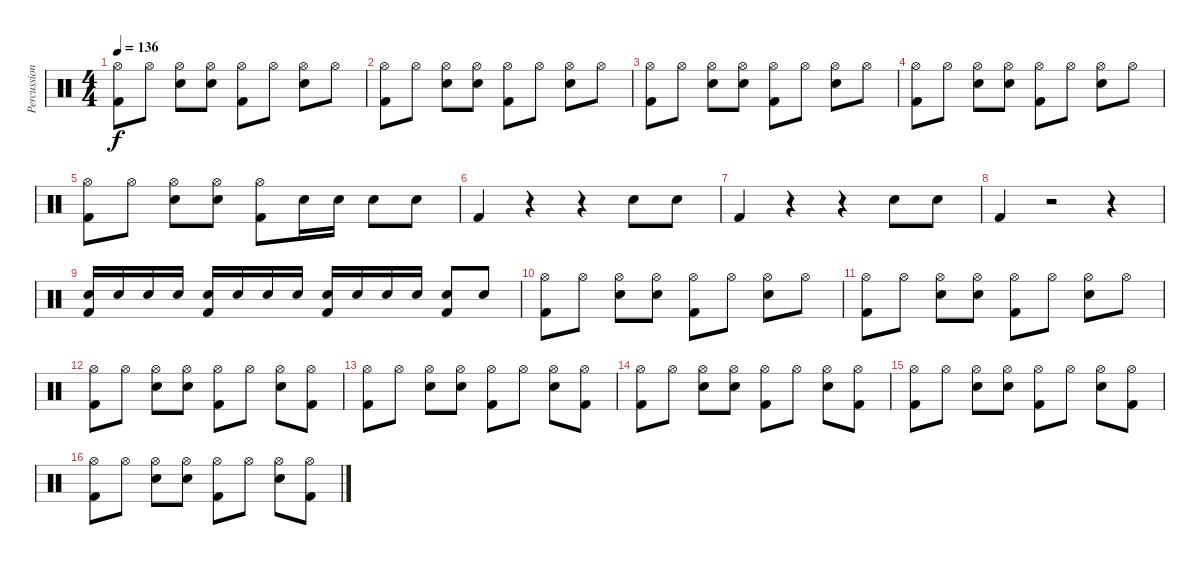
\track ("Percussion" "Percussion") {instrument percussion}
\staff {score}
\articulation defaults
\ts (4 4)
\tempo 136
\clef neutral
\ks c
("Hi-Hat (open)" "Kick (hit) 2").8{dy f} "Hi-Hat (open)".8 ("Hi-Hat (open)" "Snare (hit) 2").8 ("Hi-Hat (open)" "Snare (hit) 2").8 ("Hi-Hat (open)" "Kick (hit) 2").8 "Hi-Hat (open)".8 ("Hi-Hat (open)" "Snare (hit) 2").8 "Hi-Hat (open)".8 |
("Hi-Hat (open)" "Kick (hit) 2").8 "Hi-Hat (open)".8 ("Hi-Hat (open)" "Snare (hit) 2").8 ("Hi-Hat (open)" "Snare (hit) 2").8 ("Hi-Hat (open)" "Kick (hit) 2").8 "Hi-Hat (open)".8 ("Hi-Hat (open)" "Snare (hit) 2").8 "Hi-Hat (open)".8 |
("Hi-Hat (open)" "Kick (hit) 2").8 "Hi-Hat (open)".8 ("Hi-Hat (open)" "Snare (hit) 2").8 ("Hi-Hat (open)" "Snare (hit) 2").8 ("Hi-Hat (open)" "Kick (hit) 2").8 "Hi-Hat (open)".8 ("Hi-Hat (open)" "Snare (hit) 2").8 "Hi-Hat (open)".8 |
("Hi-Hat (open)" "Kick (hit) 2").8 "Hi-Hat (open)".8 ("Hi-Hat (open)" "Snare (hit) 2").8 ("Hi-Hat (open)" "Snare (hit) 2").8 ("Hi-Hat (open)" "Kick (hit) 2").8 "Hi-Hat (open)".8 ("Hi-Hat (open)" "Snare (hit) 2").8 "Hi-Hat (open)".8 |
("Hi-Hat (open)" "Kick (hit) 2").8 "Hi-Hat (open)".8 ("Hi-Hat (open)" "Snare (hit) 2").8 ("Hi-Hat (open)" "Snare (hit) 2").8 ("Hi-Hat (open)" "Kick (hit) 2").8 "Snare (hit) 2".16 "Snare (hit) 2".16 "Snare (hit) 2".8 "Snare (hit) 2".8 |
"Kick (hit) 2".4 r.4 r.4 "Snare (hit) 2".8 "Snare (hit) 2".8 |
"Kick (hit) 2".4 r.4 r.4 "Snare (hit) 2".8 "Snare (hit) 2".8 |
"Kick (hit) 2".4 r.2 r.4 |
("Snare (hit) 2" "Kick (hit) 2").16 "Snare (hit) 2".16 "Snare (hit) 2".16 "Snare (hit) 2".16 ("Snare (hit) 2" "Kick (hit) 2").16 "Snare (hit) 2".16 "Snare (hit) 2".16 "Snare (hit) 2".16 ("Snare (hit) 2" "Kick (hit) 2").16 "Snare (hit) 2".16 "Snare (hit) 2".16 "Snare (hit) 2".16 ("Snare (hit) 2" "Kick (hit) 2").8 "Snare (hit) 2".8 |
("Hi-Hat (open)" "Kick (hit) 2").8 "Hi-Hat (open)".8 ("Hi-Hat (open)" "Snare (hit) 2").8 ("Hi-Hat (open)" "Snare (hit) 2").8 ("Hi-Hat (open)" "Kick (hit) 2").8 "Hi-Hat (open)".8 ("Hi-Hat (open)" "Snare (hit) 2").8 "Hi-Hat (open)".8 |
("Hi-Hat (open)" "Kick (hit) 2").8 "Hi-Hat (open)".8 ("Hi-Hat (open)" "Snare (hit) 2").8 ("Hi-Hat (open)" "Snare (hit) 2").8 ("Hi-Hat (open)" "Kick (hit) 2").8 "Hi-Hat (open)".8 ("Hi-Hat (open)" "Snare (hit) 2").8 "Hi-Hat (open)".8 |
("Hi-Hat (open)" "Kick (hit) 2").8 "Hi-Hat (open)".8 ("Hi-Hat (open)" "Snare (hit) 2").8 ("Hi-Hat (open)" "Snare (hit) 2").8 ("Hi-Hat (open)" "Kick (hit) 2").8 "Hi-Hat (open)".8 ("Hi-Hat (open)" "Snare (hit) 2").8 ("Hi-Hat (open)" "Kick (hit) 2").8 |
("Hi-Hat (open)" "Kick (hit) 2").8 "Hi-Hat (open)".8 ("Hi-Hat (open)" "Snare (hit) 2").8 ("Hi-Hat (open)" "Snare (hit) 2").8 ("Hi-Hat (open)" "Kick (hit) 2").8 "Hi-Hat (open)".8 ("Hi-Hat (open)" "Snare (hit) 2").8 ("Hi-Hat (open)" "Kick (hit) 2").8 |
("Hi-Hat (open)" "Kick (hit) 2").8 "Hi-Hat (open)".8 ("Hi-Hat (open)" "Snare (hit) 2").8 ("Hi-Hat (open)" "Snare (hit) 2").8 ("Hi-Hat (open)" "Kick (hit) 2").8 "Hi-Hat (open)".8 ("Hi-Hat (open)" "Snare (hit) 2").8 ("Hi-Hat (open)" "Kick (hit) 2").8 |
("Hi-Hat (open)" "Kick (hit) 2").8 "Hi-Hat (open)".8 ("Hi-Hat (open)" "Snare (hit) 2").8 ("Hi-Hat (open)" "Snare (hit) 2").8 ("Hi-Hat (open)" "Kick (hit) 2").8 "Hi-Hat (open)".8 ("Hi-Hat (open)" "Snare (hit) 2").8 ("Hi-Hat (open)" "Kick (hit) 2").8 |
("Hi-Hat (open)" "Kick (hit) 2").8 "Hi-Hat (open)".8 ("Hi-Hat (open)" "Snare (hit) 2").8 ("Hi-Hat (open)" "Snare (hit) 2").8 ("Hi-Hat (open)" "Kick (hit) 2").8 "Hi-Hat (open)".8 ("Hi-Hat (open)" "Snare (hit) 2").8 ("Hi-Hat (open)" "Kick (hit) 2").8
